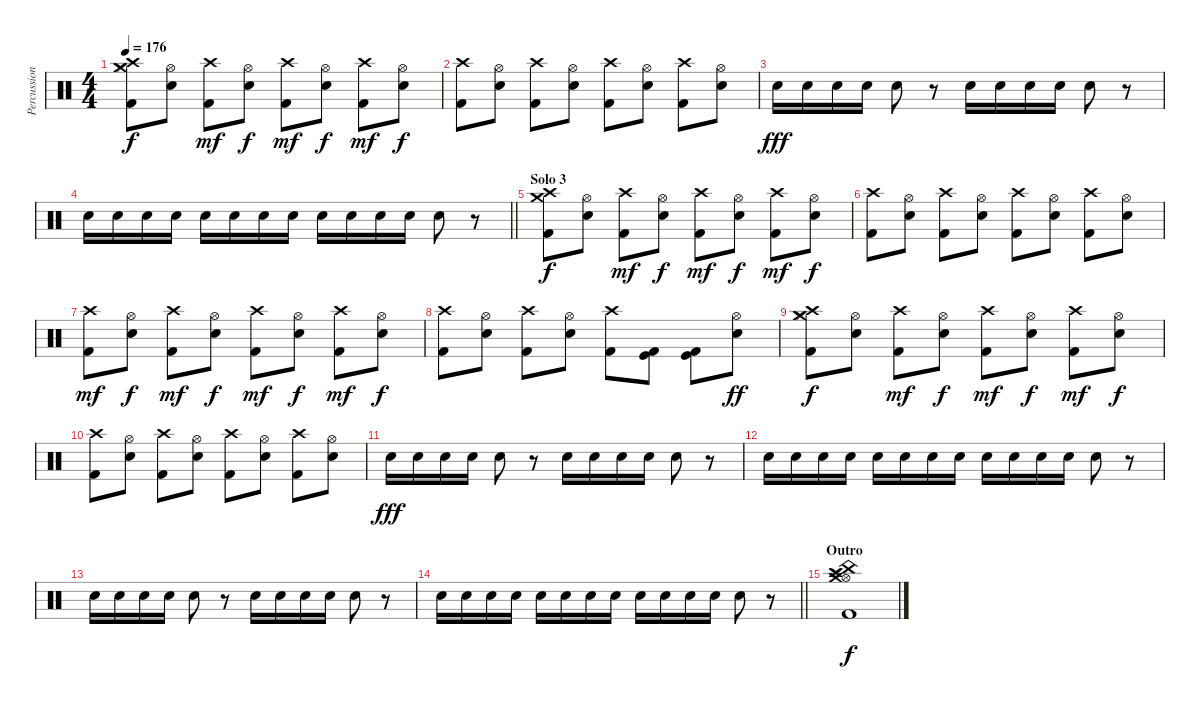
\track ("Percussion" "Percussion") {instrument percussion}
\staff {score}
\articulation defaults
\ts (4 4)
\tempo 176
\clef neutral
\ks c
("Hi-Hat (closed)" "Crash medium (hit)" "Crash high (hit)" "Kick (hit) 2").8{dy f} ("Hi-Hat (open)" "Electric Snare (hit)").8 ("Crash high (hit)" "Kick (hit) 2").8{dy mf} ("Hi-Hat (open)" "Electric Snare (hit)").8{dy f} ("Crash high (hit)" "Kick (hit) 2").8{dy mf} ("Hi-Hat (open)" "Electric Snare (hit)").8{dy f} ("Crash high (hit)" "Kick (hit) 2").8{dy mf} ("Hi-Hat (open)" "Electric Snare (hit)").8{dy f} |
("Crash high (hit)" "Kick (hit) 2").8 ("Hi-Hat (open)" "Electric Snare (hit)").8 ("Crash high (hit)" "Kick (hit) 2").8 ("Hi-Hat (open)" "Electric Snare (hit)").8 ("Crash high (hit)" "Kick (hit) 2").8 ("Hi-Hat (open)" "Electric Snare (hit)").8 ("Crash high (hit)" "Kick (hit) 2").8 ("Hi-Hat (open)" "Electric Snare (hit)").8 |
"Electric Snare (hit)".16{dy fff} "Electric Snare (hit)".16 "Electric Snare (hit)".16 "Electric Snare (hit)".16 "Electric Snare (hit)".8 r.8 "Electric Snare (hit)".16 "Electric Snare (hit)".16 "Electric Snare (hit)".16 "Electric Snare (hit)".16 "Electric Snare (hit)".8 r.8 |
\barLineRight lightlight "Electric Snare (hit)".16 "Electric Snare (hit)".16 "Electric Snare (hit)".16 "Electric Snare (hit)".16 "Electric Snare (hit)".16 "Electric Snare (hit)".16 "Electric Snare (hit)".16 "Electric Snare (hit)".16 "Electric Snare (hit)".16 "Electric Snare (hit)".16 "Electric Snare (hit)".16 "Electric Snare (hit)".16 "Electric Snare (hit)".8
r.8 |
\section ("" "Solo 3")
("Crash medium (hit)" "Crash high (hit)" "Kick (hit) 2").8{dy f} ("Hi-Hat (open)" "Electric Snare (hit)").8 ("Crash high (hit)" "Kick (hit) 2").8{dy mf} ("Hi-Hat (open)" "Electric Snare (hit)").8{dy f} ("Crash high (hit)" "Kick (hit) 2").8{dy mf} ("Hi-Hat (open)" "Electric Snare (hit)").8{dy f} ("Crash high (hit)" "Kick (hit) 2").8{dy mf} ("Hi-Hat (open)" "Electric Snare (hit)").8{dy f} |
("Crash high (hit)" "Kick (hit) 2").8 ("Hi-Hat (open)" "Electric Snare (hit)").8 ("Crash high (hit)" "Kick (hit) 2").8 ("Hi-Hat (open)" "Electric Snare (hit)").8 ("Crash high (hit)" "Kick (hit) 2").8 ("Hi-Hat (open)" "Electric Snare (hit)").8 ("Crash high (hit)" "Kick (hit) 2").8 ("Hi-Hat (open)" "Electric Snare (hit)").8 |
("Crash high (hit)" "Kick (hit) 2").8{dy mf} ("Hi-Hat (open)" "Electric Snare (hit)").8{dy f} ("Crash high (hit)" "Kick (hit) 2").8{dy mf} ("Hi-Hat (open)" "Electric Snare (hit)").8{dy f} ("Crash high (hit)" "Kick (hit) 2").8{dy mf} ("Hi-Hat (open)" "Electric Snare (hit)").8{dy f} ("Crash high (hit)" "Kick (hit) 2").8{dy mf} ("Hi-Hat (open)" "Electric Snare (hit)").8{dy f} |
("Crash high (hit)" "Kick (hit) 2").8 ("Hi-Hat (open)" "Electric Snare (hit)").8 ("Crash high (hit)" "Kick (hit) 2").8 ("Hi-Hat (open)" "Electric Snare (hit)").8 ("Crash high (hit)" "Kick (hit) 2").8 ("Kick (hit) 2" "Kick (hit)").8 ("Kick (hit) 2" "Kick (hit)").8 ("Hi-Hat (open)" "Electric Snare (hit)").8{dy ff} |
("Hi-Hat (closed)" "Crash medium (hit)" "Crash high (hit)" "Kick (hit) 2").8{dy f} ("Hi-Hat (open)" "Electric Snare (hit)").8 ("Crash high (hit)" "Kick (hit) 2").8{dy mf} ("Hi-Hat (open)" "Electric Snare (hit)").8{dy f} ("Crash high (hit)" "Kick (hit) 2").8{dy mf} ("Hi-Hat (open)" "Electric Snare (hit)").8{dy f} ("Crash high (hit)" "Kick (hit) 2").8{dy mf} ("Hi-Hat (open)" "Electric Snare (hit)").8{dy f} |
("Crash high (hit)" "Kick (hit) 2").8 ("Hi-Hat (open)" "Electric Snare (hit)").8 ("Crash high (hit)" "Kick (hit) 2").8 ("Hi-Hat (open)" "Electric Snare (hit)").8 ("Crash high (hit)" "Kick (hit) 2").8 ("Hi-Hat (open)" "Electric Snare (hit)").8 ("Crash high (hit)" "Kick (hit) 2").8 ("Hi-Hat (open)" "Electric Snare (hit)").8 |
"Electric Snare (hit)".16{dy fff} "Electric Snare (hit)".16 "Electric Snare (hit)".16 "Electric Snare (hit)".16 "Electric Snare (hit)".8 r.8 "Electric Snare (hit)".16 "Electric Snare (hit)".16 "Electric Snare (hit)".16 "Electric Snare (hit)".16 "Electric Snare (hit)".8 r.8 |
"Electric Snare (hit)".16 "Electric Snare (hit)".16 "Electric Snare (hit)".16 "Electric Snare (hit)".16 "Electric Snare (hit)".16 "Electric Snare (hit)".16 "Electric Snare (hit)".16 "Electric Snare (hit)".16 "Electric Snare (hit)".16 "Electric Snare (hit)".16 "Electric Snare (hit)".16 "Electric Snare (hit)".16 "Electric Snare (hit)".8 r.8 |
"Electric Snare (hit)".16 "Electric Snare (hit)".16 "Electric Snare (hit)".16 "Electric Snare (hit)".16 "Electric Snare (hit)".8 r.8 "Electric Snare (hit)".16 "Electric Snare (hit)".16 "Electric Snare (hit)".16 "Electric Snare (hit)".16 "Electric Snare (hit)".8 r.8 |
\barLineRight lightlight "Electric Snare (hit)".16 "Electric Snare (hit)".16 "Electric Snare (hit)".16 "Electric Snare (hit)".16 "Electric Snare (hit)".16 "Electric Snare (hit)".16 "Electric Snare (hit)".16 "Electric Snare (hit)".16 "Electric Snare (hit)".16 "Electric Snare (hit)".16 "Electric Snare (hit)".16 "Electric Snare (hit)".16 "Electric Snare (hit)".8
r.8 |
\section ("" "Outro")
("China (hit)" "Hi-Hat (open)" "Crash medium (hit)" "Crash high (hit)" "Splash (hit)" "Kick (hit) 2").1{dy f}
